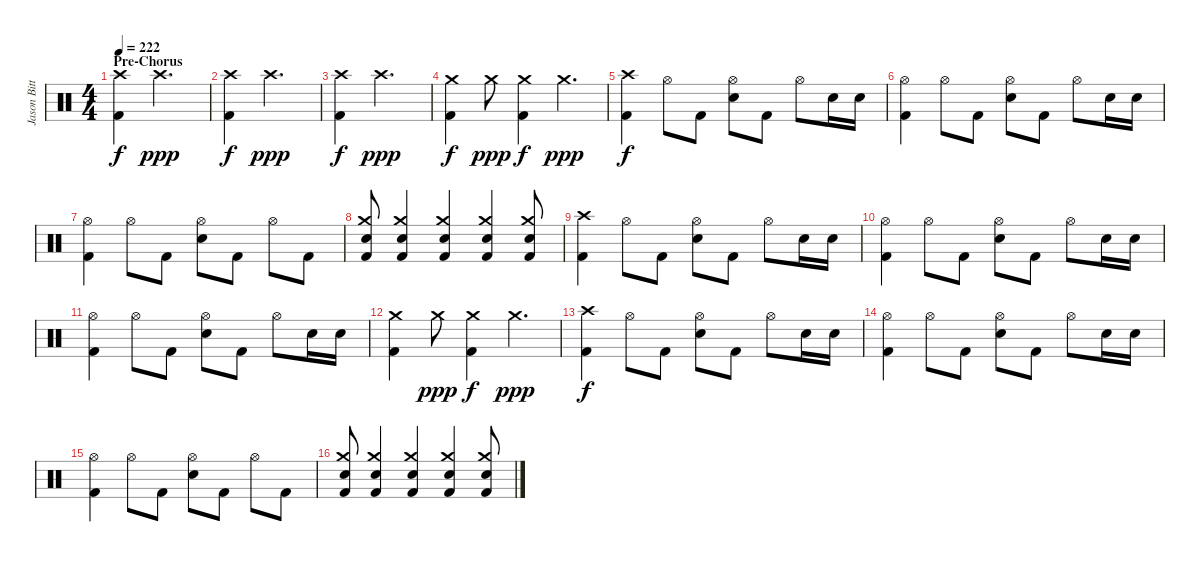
\track ("Jason Bittner" "Jason Bitt") {instrument percussion}
\staff {score}
\articulation defaults
\ts (4 4)
\section ("" "Pre-Chorus")
\tempo 222
\clef neutral
\ks c
("Crash high (hit)" "Kick (hit) 2").4{dy f} "Crash high (hit)".2{d dy ppp} |
("Crash high (hit)" "Kick (hit) 2").4{dy f} "Crash high (hit)".2{d dy ppp} |
("Crash high (hit)" "Kick (hit) 2").4{dy f} "Crash high (hit)".2{d dy ppp} |
("Crash medium (hit)" "Kick (hit) 2").4{dy f} "Crash medium (hit)".8{dy ppp} ("Crash medium (hit)" "Kick (hit) 2").4{dy f} "Crash medium (hit)".4{d dy ppp} |
("Crash high (hit)" "Kick (hit) 2").4{dy f} "Hi-Hat (open)".8 "Kick (hit) 2".8 ("Hi-Hat (open)" "Electric Snare (hit)").8 "Kick (hit) 2".8 "Hi-Hat (open)".8 "Electric Snare (hit)".16 "Electric Snare (hit)".16 |
("Hi-Hat (open)" "Kick (hit) 2").4 "Hi-Hat (open)".8 "Kick (hit) 2".8 ("Hi-Hat (open)" "Electric Snare (hit)").8 "Kick (hit) 2".8 "Hi-Hat (open)".8 "Electric Snare (hit)".16 "Electric Snare (hit)".16 |
("Hi-Hat (open)" "Kick (hit) 2").4 "Hi-Hat (open)".8 "Kick (hit) 2".8 ("Hi-Hat (open)" "Electric Snare (hit)").8 "Kick (hit) 2".8 "Hi-Hat (open)".8 "Kick (hit) 2".8 |
("Crash medium (hit)" "Electric Snare (hit)" "Kick (hit) 2").8 ("Crash medium (hit)" "Electric Snare (hit)" "Kick (hit) 2").4 ("Crash medium (hit)" "Electric Snare (hit)" "Kick (hit) 2").4 ("Crash medium (hit)" "Electric Snare (hit)" "Kick (hit) 2").4 ("Crash medium (hit)" "Electric Snare (hit)" "Kick (hit) 2").8 |
("Crash high (hit)" "Kick (hit) 2").4 "Hi-Hat (open)".8 "Kick (hit) 2".8 ("Hi-Hat (open)" "Electric Snare (hit)").8 "Kick (hit) 2".8 "Hi-Hat (open)".8 "Electric Snare (hit)".16 "Electric Snare (hit)".16 |
("Hi-Hat (open)" "Kick (hit) 2").4 "Hi-Hat (open)".8 "Kick (hit) 2".8 ("Hi-Hat (open)" "Electric Snare (hit)").8 "Kick (hit) 2".8 "Hi-Hat (open)".8 "Electric Snare (hit)".16 "Electric Snare (hit)".16 |
("Hi-Hat (open)" "Kick (hit) 2").4 "Hi-Hat (open)".8 "Kick (hit) 2".8 ("Hi-Hat (open)" "Electric Snare (hit)").8 "Kick (hit) 2".8 "Hi-Hat (open)".8 "Electric Snare (hit)".16 "Electric Snare (hit)".16 |
("Crash medium (hit)" "Kick (hit) 2").4 "Crash medium (hit)".8{dy ppp} ("Crash medium (hit)" "Kick (hit) 2").4{dy f} "Crash medium (hit)".4{d dy ppp} |
("Crash high (hit)" "Kick (hit) 2").4{dy f} "Hi-Hat (open)".8 "Kick (hit) 2".8 ("Hi-Hat (open)" "Electric Snare (hit)").8 "Kick (hit) 2".8 "Hi-Hat (open)".8 "Electric Snare (hit)".16 "Electric Snare (hit)".16 |
("Hi-Hat (open)" "Kick (hit) 2").4 "Hi-Hat (open)".8 "Kick (hit) 2".8 ("Hi-Hat (open)" "Electric Snare (hit)").8 "Kick (hit) 2".8 "Hi-Hat (open)".8 "Electric Snare (hit)".16 "Electric Snare (hit)".16 |
("Hi-Hat (open)" "Kick (hit) 2").4 "Hi-Hat (open)".8 "Kick (hit) 2".8 ("Hi-Hat (open)" "Electric Snare (hit)").8 "Kick (hit) 2".8 "Hi-Hat (open)".8 "Kick (hit) 2".8 |
("Crash medium (hit)" "Electric Snare (hit)" "Kick (hit) 2").8 ("Crash medium (hit)" "Electric Snare (hit)" "Kick (hit) 2").4 ("Crash medium (hit)" "Electric Snare (hit)" "Kick (hit) 2").4 ("Crash medium (hit)" "Electric Snare (hit)" "Kick (hit) 2").4 ("Crash medium (hit)" "Electric Snare (hit)" "Kick (hit) 2").8
